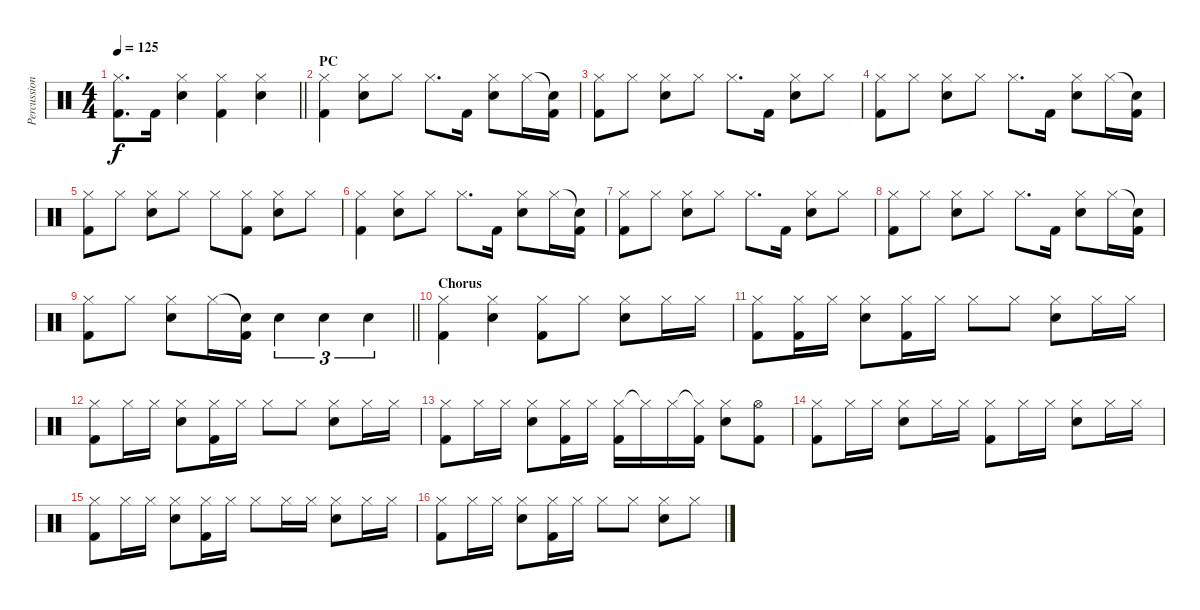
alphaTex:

\track ("Percussion" "Percussion") {instrument percussion}
\staff {score}
\articulation defaults
\ts (4 4)
\tempo 125
\clef neutral
\barLineRight lightlight
\ks c
("Hi-Hat (closed)" "Kick (hit) 2").8{d dy f} "Kick (hit) 2".16 ("Hi-Hat (closed)" "Electric Snare (hit)").4 ("Hi-Hat (closed)" "Kick (hit) 2").4 ("Hi-Hat (closed)" "Electric Snare (hit)").4 |
\section ("" "PC")
("Hi-Hat (closed)" "Kick (hit) 2").4 ("Hi-Hat (closed)" "Electric Snare (hit)").8 "Hi-Hat (closed)".8 "Hi-Hat (closed)".8{d} "Kick (hit) 2".16 ("Hi-Hat (closed)" "Electric Snare (hit)").8 "Hi-Hat (closed)".16 ("Snare (hit)"{t} "Kick (hit) 2").16 |
("Hi-Hat (closed)" "Kick (hit) 2").8 "Hi-Hat (closed)".8 ("Hi-Hat (closed)" "Electric Snare (hit)").8 "Hi-Hat (closed)".8 "Hi-Hat (closed)".8{d} "Kick (hit) 2".16 ("Hi-Hat (closed)" "Electric Snare (hit)").8 "Hi-Hat (closed)".8 |
("Hi-Hat (closed)" "Kick (hit) 2").8 "Hi-Hat (closed)".8 ("Hi-Hat (closed)" "Electric Snare (hit)").8 "Hi-Hat (closed)".8 "Hi-Hat (closed)".8{d} "Kick (hit) 2".16 ("Hi-Hat (closed)" "Electric Snare (hit)").8 "Hi-Hat (closed)".16 ("Snare (hit)"{t} "Kick (hit) 2").16 |
("Hi-Hat (closed)" "Kick (hit) 2").8 "Hi-Hat (closed)".8 ("Hi-Hat (closed)" "Electric Snare (hit)").8 "Hi-Hat (closed)".8 "Hi-Hat (closed)".8 ("Hi-Hat (closed)" "Kick (hit) 2").8 ("Hi-Hat (closed)" "Electric Snare (hit)").8 "Hi-Hat (closed)".8 |
("Hi-Hat (closed)" "Kick (hit) 2").4 ("Hi-Hat (closed)" "Electric Snare (hit)").8 "Hi-Hat (closed)".8 "Hi-Hat (closed)".8{d} "Kick (hit) 2".16 ("Hi-Hat (closed)" "Electric Snare (hit)").8 "Hi-Hat (closed)".16 ("Snare (hit)"{t} "Kick (hit) 2").16 |
("Hi-Hat (closed)" "Kick (hit) 2").8 "Hi-Hat (closed)".8 ("Hi-Hat (closed)" "Electric Snare (hit)").8 "Hi-Hat (closed)".8 "Hi-Hat (closed)".8{d} "Kick (hit) 2".16 ("Hi-Hat (closed)" "Electric Snare (hit)").8 "Hi-Hat (closed)".8 |
("Hi-Hat (closed)" "Kick (hit) 2").8 "Hi-Hat (closed)".8 ("Hi-Hat (closed)" "Electric Snare (hit)").8 "Hi-Hat (closed)".8 "Hi-Hat (closed)".8{d} "Kick (hit) 2".16 ("Hi-Hat (closed)" "Electric Snare (hit)").8 "Hi-Hat (closed)".16 ("Snare (hit)"{t} "Kick (hit) 2").16 |
\barLineRight lightlight
("Hi-Hat (closed)" "Kick (hit) 2").8 "Hi-Hat (closed)".8 ("Hi-Hat (closed)" "Electric Snare (hit)").8 "Hi-Hat (closed)".16 ("Snare (hit)"{t} "Kick (hit) 2").16 "Electric Snare (hit)".4{tu (3 2)} "Electric Snare (hit)".4{tu (3 2)} "Electric Snare (hit)".4{tu (3 2)} |
\section ("" "Chorus")
("Hi-Hat (closed)" "Kick (hit) 2").4 ("Hi-Hat (closed)" "Electric Snare (hit)").4 ("Hi-Hat (closed)" "Kick (hit) 2").8 "Hi-Hat (closed)".8 ("Hi-Hat (closed)" "Electric Snare (hit)").8 "Hi-Hat (closed)".16 "Hi-Hat (closed)".16 |
("Hi-Hat (closed)" "Kick (hit) 2").8 ("Hi-Hat (closed)" "Kick (hit) 2").16 "Hi-Hat (closed)".16 ("Hi-Hat (closed)" "Electric Snare (hit)").8 ("Hi-Hat (closed)" "Kick (hit) 2").16 "Hi-Hat (closed)".16 "Hi-Hat (closed)".8 "Hi-Hat (closed)".8 ("Hi-Hat (closed)" "Electric Snare (hit)").8 "Hi-Hat (closed)".16 "Hi-Hat (closed)".16 |
("Hi-Hat (closed)" "Kick (hit) 2").8 "Hi-Hat (closed)".16 "Hi-Hat (closed)".16 ("Hi-Hat (closed)" "Electric Snare (hit)").8 ("Hi-Hat (closed)" "Kick (hit) 2").16 "Hi-Hat (closed)".16 "Hi-Hat (closed)".8 "Hi-Hat (closed)".8 ("Hi-Hat (closed)" "Electric Snare (hit)").8 "Hi-Hat (closed)".16 "Hi-Hat (closed)".16 |
("Hi-Hat (closed)" "Kick (hit) 2").8 "Hi-Hat (closed)".16 "Hi-Hat (closed)".16 ("Hi-Hat (closed)" "Electric Snare (hit)").8 ("Hi-Hat (closed)" "Kick (hit) 2").16 "Hi-Hat (closed)".16 ("Hi-Hat (closed)" "Kick (hit) 2").16 "Hi-Hat (closed)"{t}.16 "Hi-Hat (closed)".16 ("Hi-Hat (closed)"{t} "Kick (hit) 2").16 ("Hi-Hat (closed)" "Electric Snare (hit)").8 ("Hi-Hat (open)" "Kick (hit) 2").8 |
("Hi-Hat (closed)" "Kick (hit) 2").8 "Hi-Hat (closed)".16 "Hi-Hat (closed)".16 ("Hi-Hat (closed)" "Electric Snare (hit)").8 "Hi-Hat (closed)".16 "Hi-Hat (closed)".16 ("Hi-Hat (closed)" "Kick (hit) 2").8 "Hi-Hat (closed)".16 "Hi-Hat (closed)".16 ("Hi-Hat (closed)" "Electric Snare (hit)").8 "Hi-Hat (closed)".16 "Hi-Hat (closed)".16 |
("Hi-Hat (closed)" "Kick (hit) 2").8 "Hi-Hat (closed)".16 "Hi-Hat (closed)".16 ("Hi-Hat (closed)" "Electric Snare (hit)").8 ("Hi-Hat (closed)" "Kick (hit) 2").16 "Hi-Hat (closed)".16 "Hi-Hat (closed)".8 "Hi-Hat (closed)".16 "Hi-Hat (closed)".16 ("Hi-Hat (closed)" "Electric Snare (hit)").8 "Hi-Hat (closed)".16 "Hi-Hat (closed)".16 |
("Hi-Hat (closed)" "Kick (hit) 2").8 "Hi-Hat (closed)".16 "Hi-Hat (closed)".16 ("Hi-Hat (closed)" "Electric Snare (hit)").8 ("Hi-Hat (closed)" "Kick (hit) 2").16 "Hi-Hat (closed)".16 "Hi-Hat (closed)".8 "Hi-Hat (closed)".8 ("Hi-Hat (closed)" "Electric Snare (hit)").8 "Hi-Hat (closed)".8
